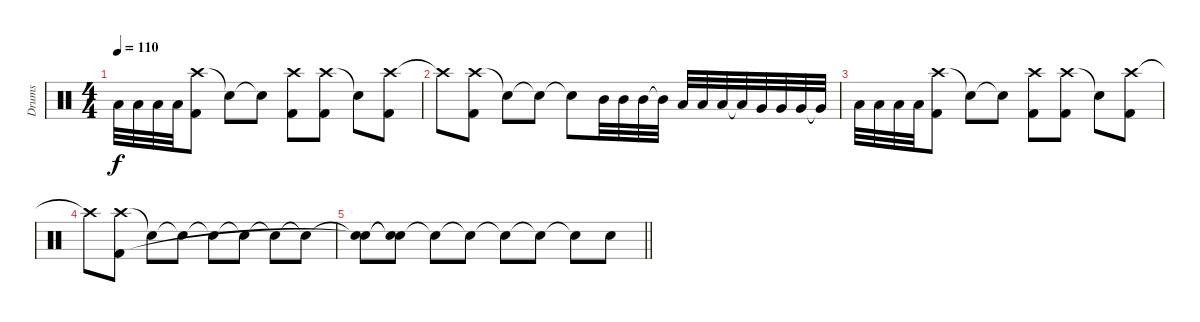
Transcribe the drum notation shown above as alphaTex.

\track ("Drums" "Drums") {instrument percussion}
\staff {score}
\articulation defaults
\ts (4 4)
\tempo 110
\clef neutral
\ks c "Low Floor Tom (hit)".32{dy f} "Low Floor Tom (hit)".32 "Low Floor Tom (hit)".32 "Low Floor Tom (hit)".32
("Crash high (hit)" "Kick (hit) 2").8 "Snare (hit)"{t}.8 "Snare (hit)"{t}.8 ("Crash high (hit)" "Kick (hit) 2").8 ("Crash high (hit)" "Kick (hit) 2").8 "Snare (hit)"{t}.8 ("Crash high (hit)" "Kick (hit) 2").8 |
"Crash high (hit)"{t}.8 ("Crash high (hit)" "Kick (hit) 2").8 "Snare (hit)"{t}.8 "Snare (hit)"{t}.8 "Snare (hit)"{t}.8 "Mid Tom (hit)".32 "Mid Tom (hit)".32 "Mid Tom (hit)".32 "Mid Tom (hit)"{t}.32 "Low Tom (hit)".32 "Low Tom (hit)".32 "Low Tom (hit)".32 "Low Tom (hit)"{t}.32 "Very Low Tom (hit)".32 "Very Low Tom (hit)".32 "Very Low Tom (hit)".32 "Very Low Tom (hit)"{t}.32 |
"Low Floor Tom (hit)".32 "Low Floor Tom (hit)".32 "Low Floor Tom (hit)".32 "Low Floor Tom (hit)".32 ("Crash high (hit)" "Kick (hit) 2").8 "Snare (hit)"{t}.8 "Snare (hit)"{t}.8 ("Crash high (hit)" "Kick (hit) 2").8 ("Crash high (hit)" "Kick (hit) 2").8 "Snare (hit)"{t}.8 ("Crash high (hit)" "Kick (hit) 2").8 |
"Crash high (hit)"{t}.8 ("Crash high (hit)" "Kick (hit) 2").8 "Snare (hit)"{t}.8 "Snare (hit)"{t}.8 "Snare (hit)"{t}.8 "Snare (hit)"{t}.8 "Snare (hit)"{t}.8 "Snare (hit)"{t}.8 |
\barLineRight lightlight
("Snare (hit)"{t} "Snare (hit)"{t}).8 ("Snare (hit)"{t} "Snare (hit)"{t}).8 "Snare (hit)"{t}.8 "Snare (hit)"{t}.8 "Snare (hit)"{t}.8 "Snare (hit)"{t}.8 "Snare (hit)"{t}.8 "Snare (hit) 2".8
